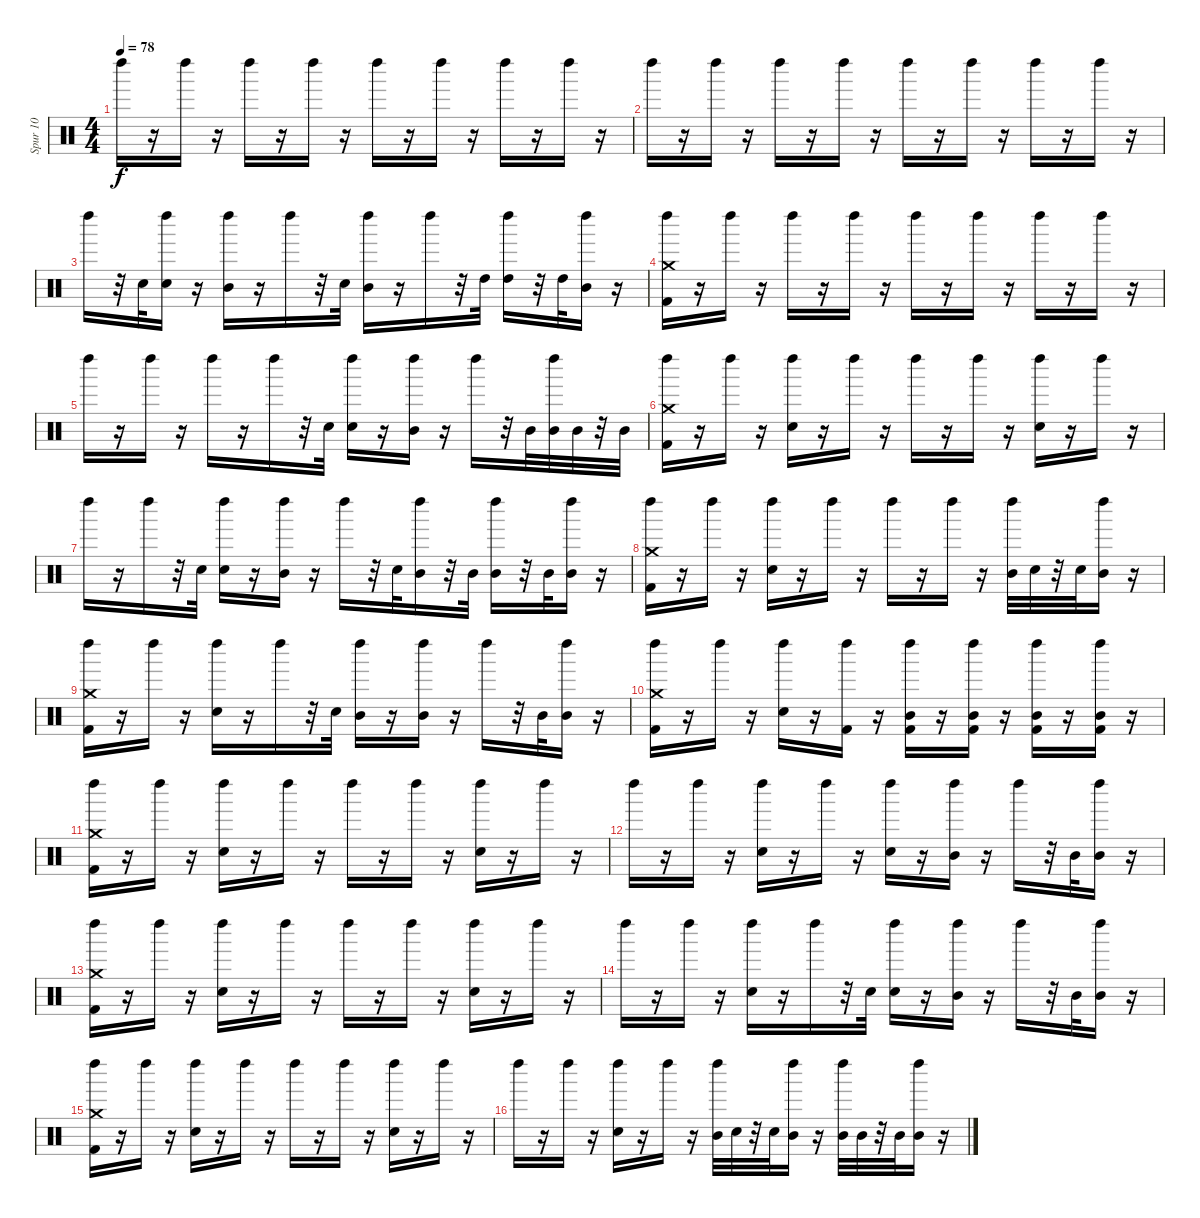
\track ("Spur 10" "Spur 10") {instrument percussion}
\staff {score}
\articulation defaults
\ts (4 4)
\tempo 78
\clef neutral
\ks c "Left Maraca (hit)".16{dy f}
r.16 "Left Maraca (hit)".16 r.16 "Left Maraca (hit)".16 r.16 "Left Maraca (hit)".16 r.16 "Left Maraca (hit)".16 r.16 "Left Maraca (hit)".16 r.16 "Left Maraca (hit)".16 r.16 "Left Maraca (hit)".16 r.16 |
"Left Maraca (hit)".16 r.16 "Left Maraca (hit)".16 r.16 "Left Maraca (hit)".16 r.16 "Left Maraca (hit)".16 r.16 "Left Maraca (hit)".16 r.16 "Left Maraca (hit)".16 r.16 "Left Maraca (hit)".16 r.16 "Left Maraca (hit)".16 r.16 |
"Left Maraca (hit)".16 r.32 "Snare (hit) 2".32 ("Left Maraca (hit)" "Snare (hit) 2").16 r.16 ("Left Maraca (hit)" "Mid Tom (hit)").16 r.16 "Left Maraca (hit)".16 r.32 "Snare (hit) 2".32 ("Left Maraca (hit)" "Mid Tom (hit)").16 r.16 "Left Maraca (hit)".16 r.32 "High Tom (hit)".32 ("Left Maraca (hit)" "High Tom (hit)").16 r.32 "High Tom (hit)".32 ("Left Maraca (hit)" "Mid Tom (hit)").16 r.16 |
("Left Maraca (hit)" "Kick (hit) 2" "Crash medium (hit)").16 r.16 "Left Maraca (hit)".16 r.16 "Left Maraca (hit)".16 r.16 "Left Maraca (hit)".16 r.16 "Left Maraca (hit)".16 r.16 "Left Maraca (hit)".16 r.16 "Left Maraca (hit)".16 r.16 "Left Maraca (hit)".16 r.16 |
"Left Maraca (hit)".16 r.16 "Left Maraca (hit)".16 r.16 "Left Maraca (hit)".16 r.16 "Left Maraca (hit)".16 r.32 "Snare (hit) 2".32 ("Left Maraca (hit)" "Snare (hit) 2").16 r.16 ("Left Maraca (hit)" "Mid Tom (hit)").16 r.16 "Left Maraca (hit)".16 r.32 "Mid Tom (hit)".32 ("Left Maraca (hit)" "Mid Tom (hit)").32 "Mid Tom (hit)".32 r.32 "Mid Tom (hit)".32 |
("Left Maraca (hit)" "Kick (hit) 2" "Crash medium (hit)").16 r.16 "Left Maraca (hit)".16 r.16 ("Left Maraca (hit)" "Snare (hit) 2").16 r.16 "Left Maraca (hit)".16 r.16 "Left Maraca (hit)".16 r.16 "Left Maraca (hit)".16 r.16 ("Left Maraca (hit)" "Snare (hit) 2").16 r.16 "Left Maraca (hit)".16 r.16 |
"Left Maraca (hit)".16 r.16 "Left Maraca (hit)".16 r.32 "Snare (hit) 2".32 ("Left Maraca (hit)" "Snare (hit) 2").16 r.16 ("Left Maraca (hit)" "Mid Tom (hit)").16 r.16 "Left Maraca (hit)".16 r.32 "Snare (hit) 2".32 ("Left Maraca (hit)" "Mid Tom (hit)").16 r.32 "Mid Tom (hit)".32 ("Left Maraca (hit)" "Mid Tom (hit)").16 r.32 "Mid Tom (hit)".32 ("Left Maraca (hit)" "Mid Tom (hit)").16 r.16 |
("Left Maraca (hit)" "Kick (hit) 2" "Crash medium (hit)").16 r.16 "Left Maraca (hit)".16 r.16 ("Left Maraca (hit)" "Snare (hit) 2").16 r.16 "Left Maraca (hit)".16 r.16 "Left Maraca (hit)".16 r.16 "Left Maraca (hit)".16 r.16 ("Left Maraca (hit)" "Mid Tom (hit)").32 "Snare (hit) 2".32 r.32 "Snare (hit) 2".32 ("Left Maraca (hit)" "Mid Tom (hit)").16 r.16 |
("Left Maraca (hit)" "Kick (hit) 2" "Crash medium (hit)").16 r.16 "Left Maraca (hit)".16 r.16 ("Left Maraca (hit)" "Snare (hit) 2").16 r.16 "Left Maraca (hit)".16 r.32 "Snare (hit) 2".32 ("Left Maraca (hit)" "Mid Tom (hit)").16 r.16 ("Left Maraca (hit)" "Mid Tom (hit)").16 r.16 "Left Maraca (hit)".16 r.32 "Mid Tom (hit)".32 ("Left Maraca (hit)" "Mid Tom (hit)").16 r.16 |
("Left Maraca (hit)" "Kick (hit) 2" "Crash medium (hit)").16 r.16 "Left Maraca (hit)".16 r.16 ("Left Maraca (hit)" "Snare (hit) 2").16 r.16 ("Left Maraca (hit)" "Kick (hit) 2").16 r.16 ("Left Maraca (hit)" "Mid Tom (hit)" "Kick (hit) 2").16 r.16 ("Left Maraca (hit)" "Mid Tom (hit)" "Kick (hit) 2").16 r.16 ("Left Maraca (hit)" "Mid Tom (hit)" "Kick (hit) 2").16 r.16 ("Left Maraca (hit)" "Mid Tom (hit)" "Kick (hit) 2").16 r.16 |
("Left Maraca (hit)" "Kick (hit) 2" "Crash medium (hit)").16 r.16 "Left Maraca (hit)".16 r.16 ("Left Maraca (hit)" "Snare (hit) 2").16 r.16 "Left Maraca (hit)".16 r.16 "Left Maraca (hit)".16 r.16 "Left Maraca (hit)".16 r.16 ("Left Maraca (hit)" "Snare (hit) 2").16 r.16 "Left Maraca (hit)".16 r.16 |
"Left Maraca (hit)".16 r.16 "Left Maraca (hit)".16 r.16 ("Left Maraca (hit)" "Snare (hit) 2").16 r.16 "Left Maraca (hit)".16 r.16 ("Left Maraca (hit)" "Snare (hit) 2").16 r.16 ("Left Maraca (hit)" "Mid Tom (hit)").16 r.16 "Left Maraca (hit)".16 r.32 "Mid Tom (hit)".32 ("Left Maraca (hit)" "Mid Tom (hit)").16 r.16 |
("Left Maraca (hit)" "Kick (hit) 2" "Crash medium (hit)").16 r.16 "Left Maraca (hit)".16 r.16 ("Left Maraca (hit)" "Snare (hit) 2").16 r.16 "Left Maraca (hit)".16 r.16 "Left Maraca (hit)".16 r.16 "Left Maraca (hit)".16 r.16 ("Left Maraca (hit)" "Snare (hit) 2").16 r.16 "Left Maraca (hit)".16 r.16 |
"Left Maraca (hit)".16 r.16 "Left Maraca (hit)".16 r.16 ("Left Maraca (hit)" "Snare (hit) 2").16 r.16 "Left Maraca (hit)".16 r.32 "Snare (hit) 2".32 ("Left Maraca (hit)" "Snare (hit) 2").16 r.16 ("Left Maraca (hit)" "Mid Tom (hit)").16 r.16 "Left Maraca (hit)".16 r.32 "Mid Tom (hit)".32 ("Left Maraca (hit)" "Mid Tom (hit)").16 r.16 |
("Left Maraca (hit)" "Kick (hit) 2" "Crash medium (hit)").16 r.16 "Left Maraca (hit)".16 r.16 ("Left Maraca (hit)" "Snare (hit) 2").16 r.16 "Left Maraca (hit)".16 r.16 "Left Maraca (hit)".16 r.16 "Left Maraca (hit)".16 r.16 ("Left Maraca (hit)" "Snare (hit) 2").16 r.16 "Left Maraca (hit)".16 r.16 |
"Left Maraca (hit)".16 r.16 "Left Maraca (hit)".16 r.16 ("Left Maraca (hit)" "Snare (hit) 2").16 r.16 "Left Maraca (hit)".16 r.16 ("Left Maraca (hit)" "Mid Tom (hit)").32 "Snare (hit) 2".32 r.32 "Snare (hit) 2".32 ("Left Maraca (hit)" "Mid Tom (hit)").16 r.16 ("Left Maraca (hit)" "Mid Tom (hit)").32 "Mid Tom (hit)".32 r.32 "Mid Tom (hit)".32 ("Left Maraca (hit)" "Mid Tom (hit)").16 r.16
